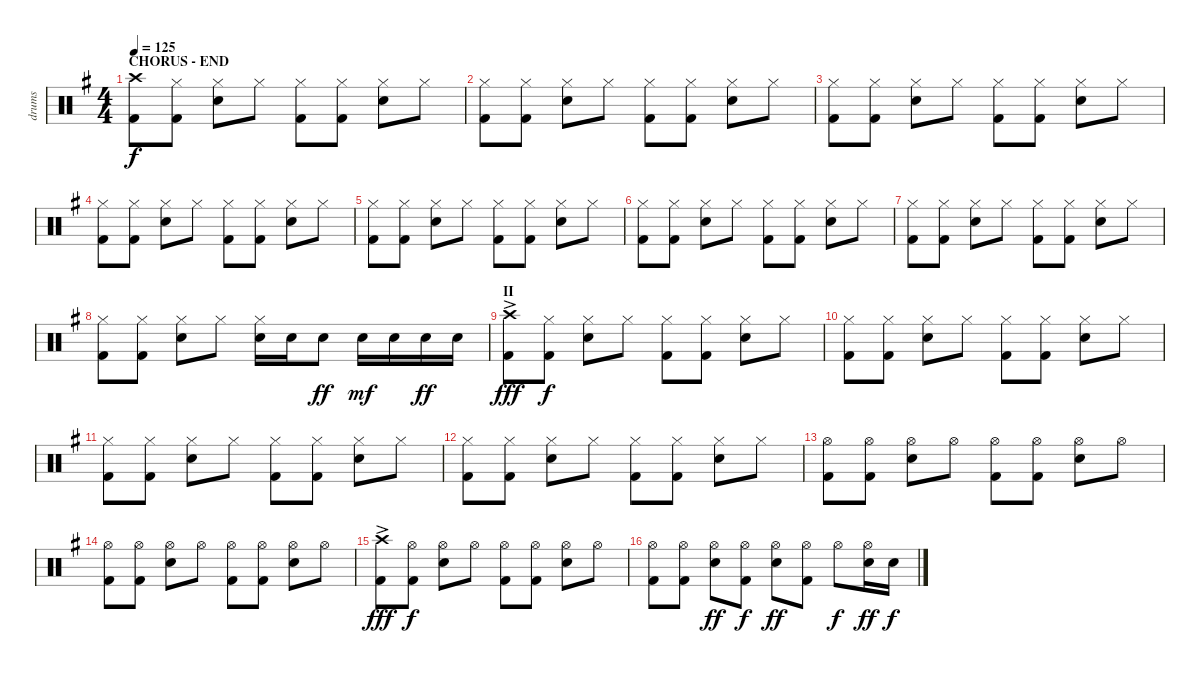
\track ("drums" "drums") {instrument percussion}
\staff {score}
\articulation defaults
\ts (4 4)
\section ("" "CHORUS - END")
\tempo 125
\clef neutral
\ks eminor
("Crash high (hit)" "Kick (hit) 2").8{dy f} ("Hi-Hat (closed)" "Kick (hit) 2").8 ("Hi-Hat (closed)" "Snare (hit) 2").8 "Hi-Hat (closed)".8 ("Hi-Hat (closed)" "Kick (hit) 2").8 ("Hi-Hat (closed)" "Kick (hit) 2").8 ("Hi-Hat (closed)" "Snare (hit) 2").8 "Hi-Hat (closed)".8 |
("Hi-Hat (closed)" "Kick (hit) 2").8 ("Hi-Hat (closed)" "Kick (hit) 2").8 ("Hi-Hat (closed)" "Snare (hit) 2").8 "Hi-Hat (closed)".8 ("Hi-Hat (closed)" "Kick (hit) 2").8 ("Hi-Hat (closed)" "Kick (hit) 2").8 ("Hi-Hat (closed)" "Snare (hit) 2").8 "Hi-Hat (closed)".8 |
("Hi-Hat (closed)" "Kick (hit) 2").8 ("Hi-Hat (closed)" "Kick (hit) 2").8 ("Hi-Hat (closed)" "Snare (hit) 2").8 "Hi-Hat (closed)".8 ("Hi-Hat (closed)" "Kick (hit) 2").8 ("Hi-Hat (closed)" "Kick (hit) 2").8 ("Hi-Hat (closed)" "Snare (hit) 2").8 "Hi-Hat (closed)".8 |
("Hi-Hat (closed)" "Kick (hit) 2").8 ("Hi-Hat (closed)" "Kick (hit) 2").8 ("Hi-Hat (closed)" "Snare (hit) 2").8 "Hi-Hat (closed)".8 ("Hi-Hat (closed)" "Kick (hit) 2").8 ("Hi-Hat (closed)" "Kick (hit) 2").8 ("Hi-Hat (closed)" "Snare (hit) 2").8 "Hi-Hat (closed)".8 |
("Hi-Hat (closed)" "Kick (hit) 2").8 ("Hi-Hat (closed)" "Kick (hit) 2").8 ("Hi-Hat (closed)" "Snare (hit) 2").8 "Hi-Hat (closed)".8 ("Hi-Hat (closed)" "Kick (hit) 2").8 ("Hi-Hat (closed)" "Kick (hit) 2").8 ("Hi-Hat (closed)" "Snare (hit) 2").8 "Hi-Hat (closed)".8 |
("Hi-Hat (closed)" "Kick (hit) 2").8 ("Hi-Hat (closed)" "Kick (hit) 2").8 ("Hi-Hat (closed)" "Snare (hit) 2").8 "Hi-Hat (closed)".8 ("Hi-Hat (closed)" "Kick (hit) 2").8 ("Hi-Hat (closed)" "Kick (hit) 2").8 ("Hi-Hat (closed)" "Snare (hit) 2").8 "Hi-Hat (closed)".8 |
("Hi-Hat (closed)" "Kick (hit) 2").8 ("Hi-Hat (closed)" "Kick (hit) 2").8 ("Hi-Hat (closed)" "Snare (hit) 2").8 "Hi-Hat (closed)".8 ("Hi-Hat (closed)" "Kick (hit) 2").8 ("Hi-Hat (closed)" "Kick (hit) 2").8 ("Hi-Hat (closed)" "Snare (hit) 2").8 "Hi-Hat (closed)".8 |
("Hi-Hat (closed)" "Kick (hit) 2").8 ("Hi-Hat (closed)" "Kick (hit) 2").8 ("Hi-Hat (closed)" "Snare (hit) 2").8 "Hi-Hat (closed)".8 ("Hi-Hat (closed)" "Snare (hit) 2").16 "Snare (hit) 2".16 "Snare (hit) 2".8{dy ff} "Snare (hit) 2".16{dy mf} "Snare (hit) 2".16 "Snare (hit) 2".16{dy ff} "Snare (hit) 2".16 |
\section ("" "II")
("Crash high (hit)"{ac} "Kick (hit) 2"{ac}).8{dy fff} ("Hi-Hat (closed)" "Kick (hit) 2").8{dy f} ("Hi-Hat (closed)" "Snare (hit) 2").8 "Hi-Hat (closed)".8 ("Hi-Hat (closed)" "Kick (hit) 2").8 ("Hi-Hat (closed)" "Kick (hit) 2").8 ("Hi-Hat (closed)" "Snare (hit) 2").8 "Hi-Hat (closed)".8 |
("Hi-Hat (closed)" "Kick (hit) 2").8 ("Hi-Hat (closed)" "Kick (hit) 2").8 ("Hi-Hat (closed)" "Snare (hit) 2").8 "Hi-Hat (closed)".8 ("Hi-Hat (closed)" "Kick (hit) 2").8 ("Hi-Hat (closed)" "Kick (hit) 2").8 ("Hi-Hat (closed)" "Snare (hit) 2").8 "Hi-Hat (closed)".8 |
("Hi-Hat (closed)" "Kick (hit) 2").8 ("Hi-Hat (closed)" "Kick (hit) 2").8 ("Hi-Hat (closed)" "Snare (hit) 2").8 "Hi-Hat (closed)".8 ("Hi-Hat (closed)" "Kick (hit) 2").8 ("Hi-Hat (closed)" "Kick (hit) 2").8 ("Hi-Hat (closed)" "Snare (hit) 2").8 "Hi-Hat (closed)".8 |
("Hi-Hat (closed)" "Kick (hit) 2").8 ("Hi-Hat (closed)" "Kick (hit) 2").8 ("Hi-Hat (closed)" "Snare (hit) 2").8 "Hi-Hat (closed)".8 ("Hi-Hat (closed)" "Kick (hit) 2").8 ("Hi-Hat (closed)" "Kick (hit) 2").8 ("Hi-Hat (closed)" "Snare (hit) 2").8 "Hi-Hat (closed)".8 |
("Hi-Hat (open)" "Kick (hit) 2").8 ("Hi-Hat (open)" "Kick (hit) 2").8 ("Hi-Hat (open)" "Snare (hit) 2").8 "Hi-Hat (open)".8 ("Hi-Hat (open)" "Kick (hit) 2").8 ("Hi-Hat (open)" "Kick (hit) 2").8 ("Hi-Hat (open)" "Snare (hit) 2").8 "Hi-Hat (open)".8 |
("Hi-Hat (open)" "Kick (hit) 2").8 ("Hi-Hat (open)" "Kick (hit) 2").8 ("Hi-Hat (open)" "Snare (hit) 2").8 "Hi-Hat (open)".8 ("Hi-Hat (open)" "Kick (hit) 2").8 ("Hi-Hat (open)" "Kick (hit) 2").8 ("Hi-Hat (open)" "Snare (hit) 2").8 "Hi-Hat (open)".8 |
("Crash high (hit)"{ac} "Kick (hit) 2"{ac}).8{dy fff} ("Hi-Hat (open)" "Kick (hit) 2").8{dy f} ("Hi-Hat (open)" "Snare (hit) 2").8 "Hi-Hat (open)".8 ("Hi-Hat (open)" "Kick (hit) 2").8 ("Hi-Hat (open)" "Kick (hit) 2").8 ("Hi-Hat (open)" "Snare (hit) 2").8 "Hi-Hat (open)".8 |
("Hi-Hat (open)" "Kick (hit) 2").8 ("Hi-Hat (open)" "Kick (hit) 2").8 ("Hi-Hat (open)" "Snare (hit) 2").8{dy ff} ("Hi-Hat (open)" "Kick (hit) 2").8{dy f} ("Hi-Hat (open)" "Snare (hit) 2").8{dy ff} ("Hi-Hat (open)" "Kick (hit) 2").8 "Hi-Hat (open)".8{dy f} ("Hi-Hat (open)" "Snare (hit) 2").16{dy ff} "Snare (hit) 2".16{dy f}
